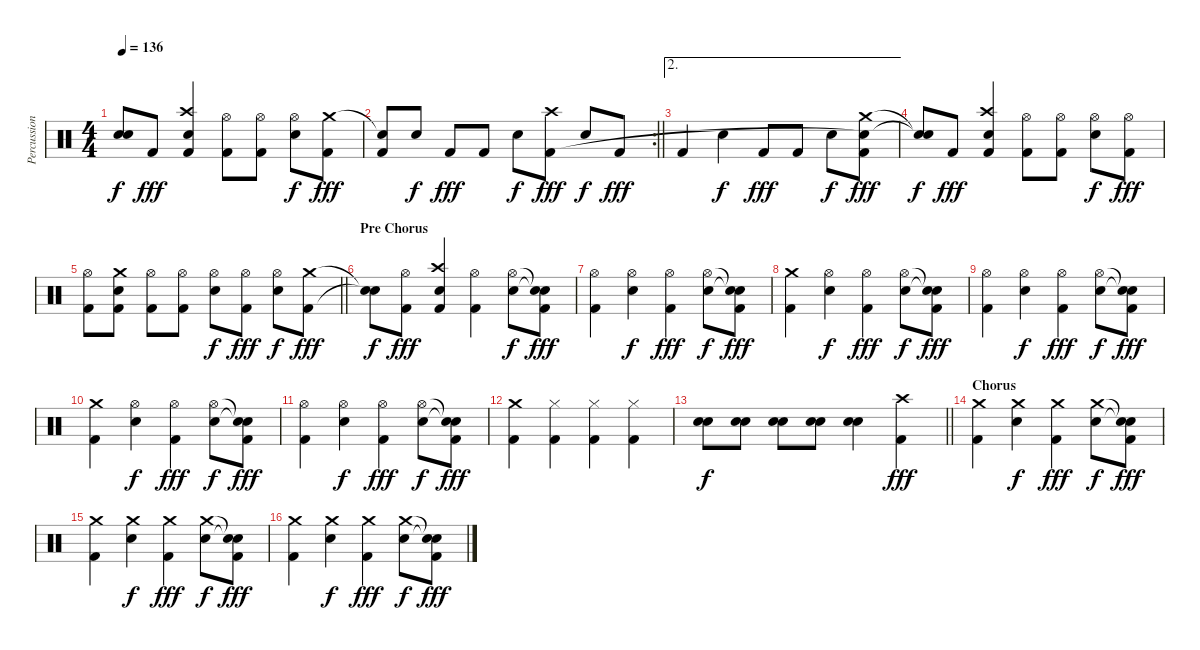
\track ("Percussion" "Percussion") {instrument percussion}
\staff {score}
\articulation defaults
\ts (4 4)
\tempo 136
\clef neutral
\ks c
("Snare (hit)"{t} "Snare (hit)"{t}).8{dy f} "Kick (hit) 2".8{dy fff} ("Crash high (hit)" "Electric Snare (hit)" "Kick (hit) 2").4 ("Hi-Hat (open)" "Kick (hit) 2").8 ("Hi-Hat (open)" "Kick (hit) 2").8 ("Hi-Hat (open)" "Electric Snare (hit)").8{dy f} ("Crash medium (hit)" "Kick (hit) 2").8{dy fff} |
\rc 2
\barLineRight lightlight
("Snare (hit)"{t} "Kick (hit) 2").8 "Electric Snare (hit)".8{dy f} "Kick (hit) 2".8{dy fff} "Kick (hit) 2".8 "Electric Snare (hit)".8{dy f} ("Crash high (hit)" "Kick (hit) 2").8{dy fff} "Electric Snare (hit)".8{dy f} "Kick (hit) 2".8{dy fff} |
\ae 2 "Kick (hit) 2".4 "Electric Snare (hit)".4{dy f} "Kick (hit) 2".8{dy fff} "Kick (hit) 2".8 "Electric Snare (hit)".8{dy f}
("Crash medium (hit)" "Snare (hit)"{t} "Kick (hit) 2").8{dy fff} |
("Snare (hit)"{t} "Snare (hit)"{t}).8{dy f} "Kick (hit) 2".8{dy fff} ("Crash high (hit)" "Electric Snare (hit)" "Kick (hit) 2").4 ("Hi-Hat (open)" "Kick (hit) 2").8 ("Hi-Hat (open)" "Kick (hit) 2").8 ("Hi-Hat (open)" "Electric Snare (hit)").8{dy f} ("Hi-Hat (open)" "Kick (hit) 2").8{dy fff} |
\barLineRight lightlight
("Hi-Hat (open)" "Kick (hit) 2").8 ("Crash medium (hit)" "Electric Snare (hit)" "Kick (hit) 2").8 ("Hi-Hat (open)" "Kick (hit) 2").8 ("Hi-Hat (open)" "Kick (hit) 2").8 ("Hi-Hat (open)" "Electric Snare (hit)").8{dy f} ("Hi-Hat (open)" "Kick (hit) 2").8{dy fff} ("Hi-Hat (open)" "Electric Snare (hit)").8{dy f} ("Crash medium (hit)" "Kick (hit) 2").8{dy fff} |
\section ("" "Pre Chorus")
("Snare (hit)"{t} "Snare (hit)"{t}).8{dy f} ("Hi-Hat (open)" "Kick (hit) 2").8{dy fff} ("Crash high (hit)" "Electric Snare (hit)" "Kick (hit) 2").4 ("Hi-Hat (open)" "Kick (hit) 2").4 ("Hi-Hat (open)" "Electric Snare (hit)").8{dy f} ("Snare (hit)"{t} "Snare (hit)"{t} "Kick (hit) 2").8{dy fff} |
("Hi-Hat (open)" "Kick (hit) 2").4 ("Hi-Hat (open)" "Electric Snare (hit)").4{dy f} ("Hi-Hat (open)" "Kick (hit) 2").4{dy fff} ("Hi-Hat (open)" "Electric Snare (hit)").8{dy f} ("Snare (hit)"{t} "Snare (hit)"{t} "Kick (hit) 2").8{dy fff} |
("Crash medium (hit)" "Kick (hit) 2").4 ("Hi-Hat (open)" "Electric Snare (hit)").4{dy f} ("Hi-Hat (open)" "Kick (hit) 2").4{dy fff} ("Hi-Hat (open)" "Electric Snare (hit)").8{dy f} ("Snare (hit)"{t} "Snare (hit)"{t} "Kick (hit) 2").8{dy fff} |
("Hi-Hat (open)" "Kick (hit) 2").4 ("Hi-Hat (open)" "Electric Snare (hit)").4{dy f} ("Hi-Hat (open)" "Kick (hit) 2").4{dy fff} ("Hi-Hat (open)" "Electric Snare (hit)").8{dy f} ("Snare (hit)"{t} "Snare (hit)"{t} "Kick (hit) 2").8{dy fff} |
("Crash medium (hit)" "Kick (hit) 2").4 ("Hi-Hat (open)" "Electric Snare (hit)").4{dy f} ("Hi-Hat (open)" "Kick (hit) 2").4{dy fff} ("Hi-Hat (open)" "Electric Snare (hit)").8{dy f} ("Snare (hit)"{t} "Snare (hit)"{t} "Kick (hit) 2").8{dy fff} |
("Hi-Hat (open)" "Kick (hit) 2").4 ("Hi-Hat (open)" "Electric Snare (hit)").4{dy f} ("Hi-Hat (open)" "Kick (hit) 2").4{dy fff} ("Hi-Hat (open)" "Electric Snare (hit)").8{dy f} ("Snare (hit)"{t} "Snare (hit)"{t} "Kick (hit) 2").8{dy fff} |
("Crash medium (hit)" "Kick (hit) 2").4 ("Hi-Hat (closed)" "Kick (hit) 2").4 ("Hi-Hat (closed)" "Kick (hit) 2").4 ("Hi-Hat (closed)" "Kick (hit) 2").4 |
\barLineRight lightlight
("Electric Snare (hit)" "Electric Snare (hit)").8{dy f} ("Electric Snare (hit)" "Electric Snare (hit)").8 ("Electric Snare (hit)" "Electric Snare (hit)").8 ("Electric Snare (hit)" "Electric Snare (hit)").8 ("Electric Snare (hit)" "Electric Snare (hit)").4 ("Crash high (hit)" "Kick (hit) 2").4{dy fff} |
\section ("" "Chorus")
("Crash medium (hit)" "Kick (hit) 2").4 ("Crash medium (hit)" "Electric Snare (hit)").4{dy f} ("Crash medium (hit)" "Kick (hit) 2").4{dy fff} ("Crash medium (hit)" "Electric Snare (hit)").8{dy f} ("Snare (hit)"{t} "Snare (hit)"{t} "Kick (hit) 2").8{dy fff} |
("Crash medium (hit)" "Kick (hit) 2").4 ("Crash medium (hit)" "Electric Snare (hit)").4{dy f} ("Crash medium (hit)" "Kick (hit) 2").4{dy fff} ("Crash medium (hit)" "Electric Snare (hit)").8{dy f} ("Snare (hit)"{t} "Snare (hit)"{t} "Kick (hit) 2").8{dy fff} |
("Crash medium (hit)" "Kick (hit) 2").4 ("Crash medium (hit)" "Electric Snare (hit)").4{dy f} ("Crash medium (hit)" "Kick (hit) 2").4{dy fff} ("Crash medium (hit)" "Electric Snare (hit)").8{dy f} ("Snare (hit)"{t} "Snare (hit)"{t} "Kick (hit) 2").8{dy fff}
